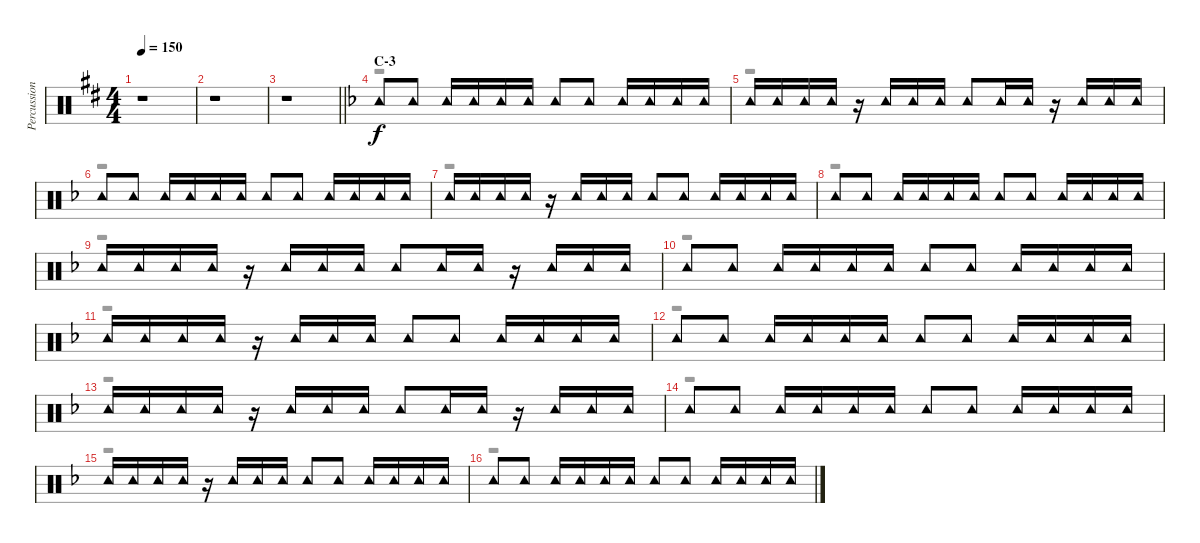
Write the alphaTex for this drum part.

\track ("Percussion" "Percussion") {instrument percussion}
\staff {score}
\articulation defaults
\voice
\ts (4 4)
\tempo 150
\clef neutral
\ks d
r.1{dy f} |
r.1 |
\barLineRight lightlight
r.1 |
\section ("" "C-3")
\ks f "Tambourine (hit)".8 "Tambourine (hit)".8 "Tambourine (hit)".16 "Tambourine (hit)".16 "Tambourine (hit)".16 "Tambourine (hit)".16 "Tambourine (hit)".8 "Tambourine (hit)".8 "Tambourine (hit)".16 "Tambourine (hit)".16 "Tambourine (hit)".16 "Tambourine (hit)".16
|
"Tambourine (hit)".16 "Tambourine (hit)".16 "Tambourine (hit)".16 "Tambourine (hit)".16 r.16 "Tambourine (hit)".16 "Tambourine (hit)".16 "Tambourine (hit)".16 "Tambourine (hit)".8 "Tambourine (hit)".16 "Tambourine (hit)".16 r.16 "Tambourine (hit)".16 "Tambourine (hit)".16 "Tambourine (hit)".16 |
"Tambourine (hit)".8 "Tambourine (hit)".8 "Tambourine (hit)".16 "Tambourine (hit)".16 "Tambourine (hit)".16 "Tambourine (hit)".16 "Tambourine (hit)".8 "Tambourine (hit)".8 "Tambourine (hit)".16 "Tambourine (hit)".16 "Tambourine (hit)".16 "Tambourine (hit)".16 |
"Tambourine (hit)".16 "Tambourine (hit)".16 "Tambourine (hit)".16 "Tambourine (hit)".16 r.16 "Tambourine (hit)".16 "Tambourine (hit)".16 "Tambourine (hit)".16 "Tambourine (hit)".8 "Tambourine (hit)".8 "Tambourine (hit)".16 "Tambourine (hit)".16 "Tambourine (hit)".16 "Tambourine (hit)".16 |
"Tambourine (hit)".8 "Tambourine (hit)".8 "Tambourine (hit)".16 "Tambourine (hit)".16 "Tambourine (hit)".16 "Tambourine (hit)".16 "Tambourine (hit)".8 "Tambourine (hit)".8 "Tambourine (hit)".16 "Tambourine (hit)".16 "Tambourine (hit)".16 "Tambourine (hit)".16 |
"Tambourine (hit)".16 "Tambourine (hit)".16 "Tambourine (hit)".16 "Tambourine (hit)".16 r.16 "Tambourine (hit)".16 "Tambourine (hit)".16 "Tambourine (hit)".16 "Tambourine (hit)".8 "Tambourine (hit)".16 "Tambourine (hit)".16 r.16 "Tambourine (hit)".16 "Tambourine (hit)".16 "Tambourine (hit)".16 |
"Tambourine (hit)".8 "Tambourine (hit)".8 "Tambourine (hit)".16 "Tambourine (hit)".16 "Tambourine (hit)".16 "Tambourine (hit)".16 "Tambourine (hit)".8 "Tambourine (hit)".8 "Tambourine (hit)".16 "Tambourine (hit)".16 "Tambourine (hit)".16 "Tambourine (hit)".16 |
"Tambourine (hit)".16 "Tambourine (hit)".16 "Tambourine (hit)".16 "Tambourine (hit)".16 r.16 "Tambourine (hit)".16 "Tambourine (hit)".16 "Tambourine (hit)".16 "Tambourine (hit)".8 "Tambourine (hit)".8 "Tambourine (hit)".16 "Tambourine (hit)".16 "Tambourine (hit)".16 "Tambourine (hit)".16 |
"Tambourine (hit)".8 "Tambourine (hit)".8 "Tambourine (hit)".16 "Tambourine (hit)".16 "Tambourine (hit)".16 "Tambourine (hit)".16 "Tambourine (hit)".8 "Tambourine (hit)".8 "Tambourine (hit)".16 "Tambourine (hit)".16 "Tambourine (hit)".16 "Tambourine (hit)".16 |
"Tambourine (hit)".16 "Tambourine (hit)".16 "Tambourine (hit)".16 "Tambourine (hit)".16 r.16 "Tambourine (hit)".16 "Tambourine (hit)".16 "Tambourine (hit)".16 "Tambourine (hit)".8 "Tambourine (hit)".16 "Tambourine (hit)".16 r.16 "Tambourine (hit)".16 "Tambourine (hit)".16 "Tambourine (hit)".16 |
"Tambourine (hit)".8 "Tambourine (hit)".8 "Tambourine (hit)".16 "Tambourine (hit)".16 "Tambourine (hit)".16 "Tambourine (hit)".16 "Tambourine (hit)".8 "Tambourine (hit)".8 "Tambourine (hit)".16 "Tambourine (hit)".16 "Tambourine (hit)".16 "Tambourine (hit)".16 |
"Tambourine (hit)".16 "Tambourine (hit)".16 "Tambourine (hit)".16 "Tambourine (hit)".16 r.16 "Tambourine (hit)".16 "Tambourine (hit)".16 "Tambourine (hit)".16 "Tambourine (hit)".8 "Tambourine (hit)".8 "Tambourine (hit)".16 "Tambourine (hit)".16 "Tambourine (hit)".16 "Tambourine (hit)".16 |
"Tambourine (hit)".8 "Tambourine (hit)".8 "Tambourine (hit)".16 "Tambourine (hit)".16 "Tambourine (hit)".16 "Tambourine (hit)".16 "Tambourine (hit)".8 "Tambourine (hit)".8 "Tambourine (hit)".16 "Tambourine (hit)".16 "Tambourine (hit)".16 "Tambourine (hit)".16
\voice
\clef neutral
\ottava regular
\simile none
\ks d
r.1{dy f} |
r.1 |
\barLineRight lightlight
r.1 |
\ks f
r.1 |
r.1 |
r.1 |
r.1 |
r.1 |
r.1 |
r.1 |
r.1 |
r.1 |
r.1 |
r.1 |
r.1 |
r.1
